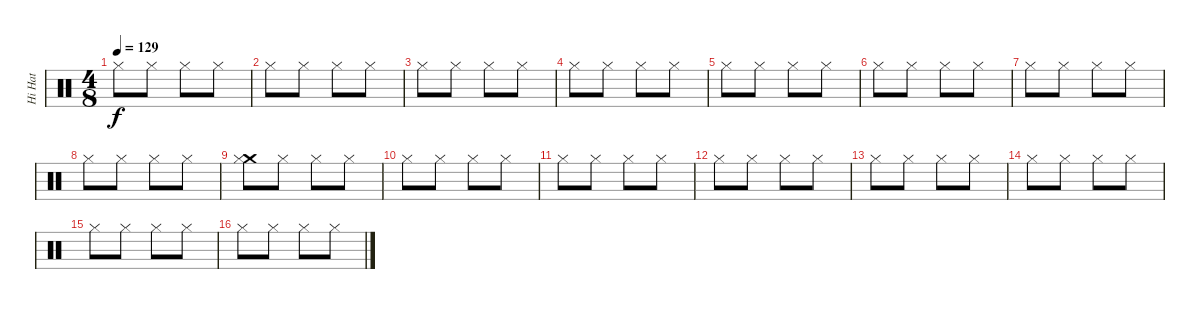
\track ("Hi Hat" "Hi Hat") {instrument percussion}
\staff {score}
\articulation defaults
\ts (4 8)
\tempo 129
\clef neutral
\ks c "Hi-Hat (closed)".8{dy f} "Hi-Hat (closed)".8 "Hi-Hat (closed)".8 "Hi-Hat (closed)".8
|
"Hi-Hat (closed)".8 "Hi-Hat (closed)".8 "Hi-Hat (closed)".8 "Hi-Hat (closed)".8 |
"Hi-Hat (closed)".8 "Hi-Hat (closed)".8 "Hi-Hat (closed)".8 "Hi-Hat (closed)".8 |
"Hi-Hat (closed)".8 "Hi-Hat (closed)".8 "Hi-Hat (closed)".8 "Hi-Hat (closed)".8 |
"Hi-Hat (closed)".8 "Hi-Hat (closed)".8 "Hi-Hat (closed)".8 "Hi-Hat (closed)".8 |
"Hi-Hat (closed)".8 "Hi-Hat (closed)".8 "Hi-Hat (closed)".8 "Hi-Hat (closed)".8 |
"Hi-Hat (closed)".8 "Hi-Hat (closed)".8 "Hi-Hat (closed)".8 "Hi-Hat (closed)".8 |
"Hi-Hat (closed)".8 "Hi-Hat (closed)".8 "Hi-Hat (closed)".8 "Hi-Hat (closed)".8 |
("Crash medium (hit)" "Hi-Hat (closed)").8 "Hi-Hat (closed)".8 "Hi-Hat (closed)".8 "Hi-Hat (closed)".8 |
"Hi-Hat (closed)".8 "Hi-Hat (closed)".8 "Hi-Hat (closed)".8 "Hi-Hat (closed)".8 |
"Hi-Hat (closed)".8 "Hi-Hat (closed)".8 "Hi-Hat (closed)".8 "Hi-Hat (closed)".8 |
"Hi-Hat (closed)".8 "Hi-Hat (closed)".8 "Hi-Hat (closed)".8 "Hi-Hat (closed)".8 |
"Hi-Hat (closed)".8 "Hi-Hat (closed)".8 "Hi-Hat (closed)".8 "Hi-Hat (closed)".8 |
"Hi-Hat (closed)".8 "Hi-Hat (closed)".8 "Hi-Hat (closed)".8 "Hi-Hat (closed)".8 |
"Hi-Hat (closed)".8 "Hi-Hat (closed)".8 "Hi-Hat (closed)".8 "Hi-Hat (closed)".8 |
"Hi-Hat (closed)".8 "Hi-Hat (closed)".8 "Hi-Hat (closed)".8 "Hi-Hat (closed)".8
